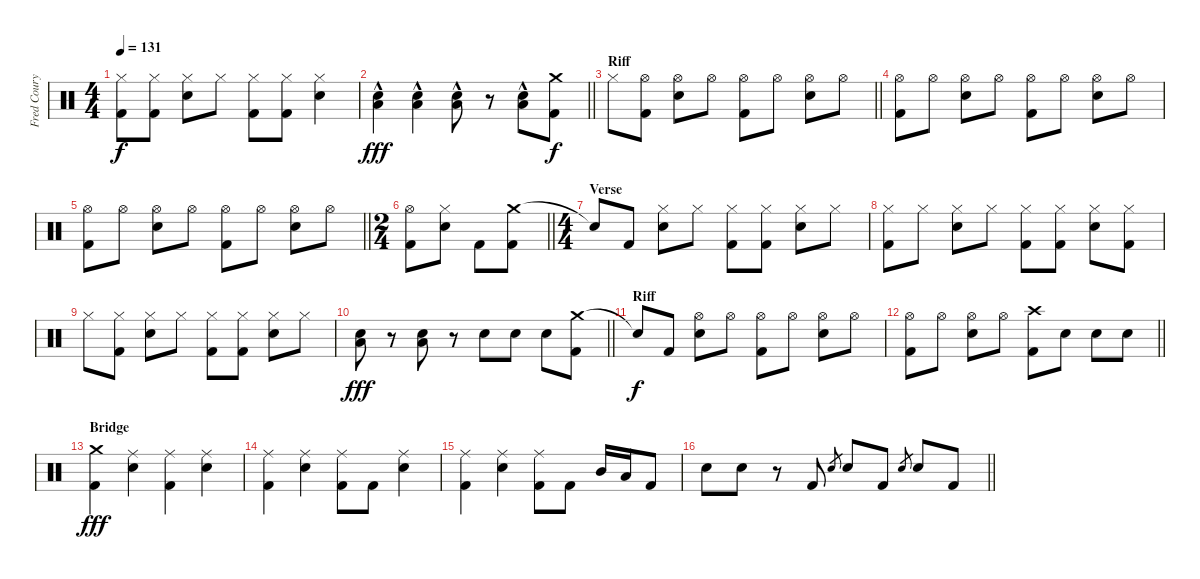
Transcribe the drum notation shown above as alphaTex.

\track ("Fred Coury - Drums" "Fred Coury") {instrument percussion}
\staff {score}
\articulation defaults
\ts (4 4)
\tempo 131
\clef neutral
\ks c
("Hi-Hat (closed)" "Kick (hit) 2"{t}).8{dy f} ("Hi-Hat (closed)" "Kick (hit) 2").8 ("Hi-Hat (closed)" "Snare (hit) 2").8 "Hi-Hat (closed)".8 ("Hi-Hat (closed)" "Kick (hit) 2").8 ("Hi-Hat (closed)" "Kick (hit) 2").8 ("Hi-Hat (closed)" "Snare (hit) 2").4 |
\barLineRight lightlight
("Low Tom (hit)"{hac} "Snare (hit) 2"{hac}).4{dy fff} ("Low Tom (hit)"{hac} "Snare (hit) 2"{hac}).4 ("Low Tom (hit)"{hac} "Snare (hit) 2"{hac}).8 r.8 ("Low Tom (hit)"{hac} "Snare (hit) 2"{hac}).8 ("Crash medium (hit)" "Kick (hit) 2").8{dy f} |
\section ("" "Riff")
\barLineRight lightlight "Hi-Hat (closed)".8
("Hi-Hat (open)" "Kick (hit) 2").8 ("Hi-Hat (open)" "Snare (hit) 2").8 "Hi-Hat (open)".8 ("Hi-Hat (open)" "Kick (hit) 2").8 "Hi-Hat (open)".8 ("Hi-Hat (open)" "Snare (hit) 2").8 "Hi-Hat (open)".8 |
("Hi-Hat (open)" "Kick (hit) 2").8 "Hi-Hat (open)".8 ("Hi-Hat (open)" "Snare (hit) 2").8 "Hi-Hat (open)".8 ("Hi-Hat (open)" "Kick (hit) 2").8 "Hi-Hat (open)".8 ("Hi-Hat (open)" "Snare (hit) 2").8 "Hi-Hat (open)".8 |
\barLineRight lightlight
("Hi-Hat (open)" "Kick (hit) 2").8 "Hi-Hat (open)".8 ("Hi-Hat (open)" "Snare (hit) 2").8 "Hi-Hat (open)".8 ("Hi-Hat (open)" "Kick (hit) 2").8 "Hi-Hat (open)".8 ("Hi-Hat (open)" "Snare (hit) 2").8 "Hi-Hat (open)".8 |
\ts (2 4)
\barLineRight lightlight
("Hi-Hat (open)" "Kick (hit) 2").8 ("Hi-Hat (closed)" "Snare (hit) 2").8 "Kick (hit) 2".8 ("Crash medium (hit)" "Kick (hit) 2").8 |
\ts (4 4)
\section ("" "Verse")
"Snare (hit)"{t}.8 "Kick (hit) 2".8 ("Hi-Hat (closed)" "Snare (hit) 2").8 "Hi-Hat (closed)".8 ("Hi-Hat (closed)" "Kick (hit) 2").8 ("Hi-Hat (closed)" "Kick (hit) 2").8 ("Hi-Hat (closed)" "Snare (hit) 2").8 "Hi-Hat (closed)".8 |
("Hi-Hat (closed)" "Kick (hit) 2").8 "Hi-Hat (closed)".8 ("Hi-Hat (closed)" "Snare (hit) 2").8 "Hi-Hat (closed)".8 ("Hi-Hat (closed)" "Kick (hit) 2").8 ("Hi-Hat (closed)" "Kick (hit) 2").8 ("Hi-Hat (closed)" "Snare (hit) 2").8 ("Hi-Hat (closed)" "Kick (hit) 2").8 |
"Hi-Hat (closed)".8 ("Hi-Hat (closed)" "Kick (hit) 2").8 ("Hi-Hat (closed)" "Snare (hit) 2").8 "Hi-Hat (closed)".8 ("Hi-Hat (closed)" "Kick (hit) 2").8 ("Hi-Hat (closed)" "Kick (hit) 2").8 ("Hi-Hat (closed)" "Snare (hit) 2").8 "Hi-Hat (closed)".8 |
\barLineRight lightlight
("Low Tom (hit)" "Snare (hit) 2").8{dy fff} r.8 ("Low Tom (hit)" "Snare (hit) 2").8 r.8 "Snare (hit) 2".8 "Snare (hit) 2".8 "Snare (hit) 2".8 ("Crash medium (hit)" "Kick (hit) 2").8 |
\section ("" "Riff")
"Snare (hit)"{t}.8{dy f} "Kick (hit) 2".8 ("Hi-Hat (open)" "Snare (hit) 2").8 "Hi-Hat (open)".8 ("Hi-Hat (open)" "Kick (hit) 2").8 "Hi-Hat (open)".8 ("Hi-Hat (open)" "Snare (hit) 2").8 "Hi-Hat (open)".8 |
\barLineRight lightlight
("Hi-Hat (open)" "Kick (hit) 2").8 "Hi-Hat (open)".8 ("Hi-Hat (open)" "Snare (hit) 2").8 "Hi-Hat (open)".8 ("Crash high (hit)" "Kick (hit) 2").8 "Snare (hit) 2".8 "Snare (hit) 2".8 "Snare (hit) 2".8 |
\section ("" "Bridge ")
("Crash medium (hit)" "Kick (hit) 2").4{dy fff} ("Ride (middle)" "Snare (hit) 2").4 ("Ride (middle)" "Kick (hit) 2").4 ("Ride (middle)" "Snare (hit) 2").4 |
("Ride (middle)" "Kick (hit) 2").4 ("Ride (middle)" "Snare (hit) 2").4 ("Ride (middle)" "Kick (hit) 2").8 "Kick (hit) 2".8 ("Ride (middle)" "Snare (hit) 2").4 |
("Ride (middle)" "Kick (hit) 2").4 ("Ride (middle)" "Snare (hit) 2").4 ("Ride (middle)" "Kick (hit) 2").8 "Kick (hit) 2".8 "Mid Tom (hit)".16 "Low Tom (hit)".16 "Kick (hit) 2".8 |
\barLineRight lightlight "Snare (hit) 2".8 "Snare (hit) 2".8
r.8 "Kick (hit) 2".8 "Snare (hit) 2".8{gr} "Snare (hit) 2".8 "Kick (hit) 2".8 "Snare (hit) 2".8{gr} "Snare (hit) 2".8 "Kick (hit) 2".8
